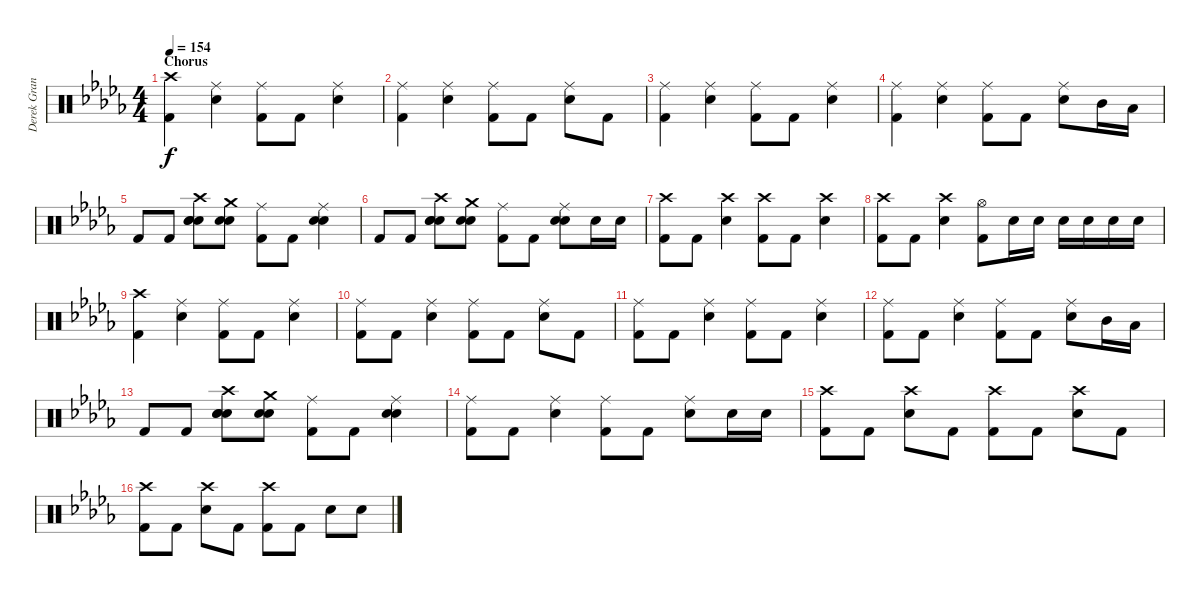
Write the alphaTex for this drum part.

\track ("Derek Grant - Drums" "Derek Gran") {instrument percussion}
\staff {score}
\articulation defaults
\ts (4 4)
\section ("" "Chorus")
\tempo 154
\clef neutral
\ks db
("Crash high (hit)" "Kick (hit) 2").4{dy f} ("Ride (middle)" "Snare (hit) 2").4 ("Ride (middle)" "Kick (hit) 2").8 "Kick (hit) 2".8 ("Ride (middle)" "Snare (hit) 2").4 |
("Ride (middle)" "Kick (hit) 2").4 ("Ride (middle)" "Snare (hit) 2").4 ("Ride (middle)" "Kick (hit) 2").8 "Kick (hit) 2".8 ("Ride (middle)" "Snare (hit) 2").8 "Kick (hit) 2".8 |
("Ride (middle)" "Kick (hit) 2").4 ("Ride (middle)" "Snare (hit) 2").4 ("Ride (middle)" "Kick (hit) 2").8 "Kick (hit) 2".8 ("Ride (middle)" "Snare (hit) 2").4 |
("Ride (middle)" "Kick (hit) 2").4 ("Ride (middle)" "Snare (hit) 2").4 ("Ride (middle)" "Kick (hit) 2").8 "Kick (hit) 2".8 ("Ride (middle)" "Snare (hit) 2").8 "Mid Tom (hit)".16 "Low Tom (hit)".16 |
"Kick (hit) 2".8 "Kick (hit) 2".8 ("Snare (hit) 2" "Crash high (hit)" "Hand Clap (hit)" "Hand Clap (hit)").8 ("Snare (hit) 2" "Hand Clap (hit)" "Crash medium (hit)").8 ("Ride (middle)" "Kick (hit) 2").8 "Kick (hit) 2".8 ("Ride (middle)" "Snare (hit) 2" "Hand Clap (hit)").4 |
"Kick (hit) 2".8 "Kick (hit) 2".8 ("Snare (hit) 2" "Crash high (hit)" "Hand Clap (hit)" "Hand Clap (hit)").8 ("Snare (hit) 2" "Hand Clap (hit)" "Crash medium (hit)").8 ("Ride (middle)" "Kick (hit) 2").8 "Kick (hit) 2".8 ("Ride (middle)" "Snare (hit) 2" "Hand Clap (hit)").8 "Snare (hit) 2".16 "Snare (hit) 2".16 |
("Kick (hit) 2" "Crash high (hit)").8 "Kick (hit) 2".8 ("Snare (hit) 2" "Crash high (hit)").4 ("Kick (hit) 2" "Crash high (hit)").8 "Kick (hit) 2".8 ("Snare (hit) 2" "Crash high (hit)").4 |
("Kick (hit) 2" "Crash high (hit)").8 "Kick (hit) 2".8 ("Snare (hit) 2" "Crash high (hit)").4 ("Kick (hit) 2" "Hi-Hat (open)").8 "Snare (hit) 2".16 "Snare (hit) 2".16 "Snare (hit) 2".16 "Snare (hit) 2".16 "Snare (hit) 2".16 "Snare (hit) 2".16 |
("Crash high (hit)" "Kick (hit) 2").4 ("Ride (middle)" "Snare (hit) 2").4 ("Ride (middle)" "Kick (hit) 2").8 "Kick (hit) 2".8 ("Ride (middle)" "Snare (hit) 2").4 |
("Ride (middle)" "Kick (hit) 2").8 "Kick (hit) 2".8 ("Ride (middle)" "Snare (hit) 2").4 ("Ride (middle)" "Kick (hit) 2").8 "Kick (hit) 2".8 ("Ride (middle)" "Snare (hit) 2").8 "Kick (hit) 2".8 |
("Ride (middle)" "Kick (hit) 2").8 "Kick (hit) 2".8 ("Ride (middle)" "Snare (hit) 2").4 ("Ride (middle)" "Kick (hit) 2").8 "Kick (hit) 2".8 ("Ride (middle)" "Snare (hit) 2").4 |
("Ride (middle)" "Kick (hit) 2").8 "Kick (hit) 2".8 ("Ride (middle)" "Snare (hit) 2").4 ("Ride (middle)" "Kick (hit) 2").8 "Kick (hit) 2".8 ("Ride (middle)" "Snare (hit) 2").8 "Mid Tom (hit)".16 "Low Tom (hit)".16 |
"Kick (hit) 2".8 "Kick (hit) 2".8 ("Snare (hit) 2" "Crash high (hit)" "Hand Clap (hit)" "Hand Clap (hit)").8 ("Snare (hit) 2" "Hand Clap (hit)" "Crash medium (hit)").8 ("Ride (middle)" "Kick (hit) 2").8 "Kick (hit) 2".8 ("Ride (middle)" "Snare (hit) 2" "Hand Clap (hit)").4 |
("Ride (middle)" "Kick (hit) 2").8 "Kick (hit) 2".8 ("Ride (middle)" "Snare (hit) 2").4 ("Ride (middle)" "Kick (hit) 2").8 "Kick (hit) 2".8 ("Ride (middle)" "Snare (hit) 2").8 "Snare (hit) 2".16 "Snare (hit) 2".16 |
("Kick (hit) 2" "Crash high (hit)").8 "Kick (hit) 2".8 ("Snare (hit) 2" "Crash high (hit)").8 "Kick (hit) 2".8 ("Kick (hit) 2" "Crash high (hit)").8 "Kick (hit) 2".8 ("Snare (hit) 2" "Crash high (hit)").8 "Kick (hit) 2".8 |
("Kick (hit) 2" "Crash high (hit)").8 "Kick (hit) 2".8 ("Snare (hit) 2" "Crash high (hit)").8 "Kick (hit) 2".8 ("Kick (hit) 2" "Crash high (hit)").8 "Kick (hit) 2".8 "Snare (hit) 2".8 "Snare (hit) 2".8
